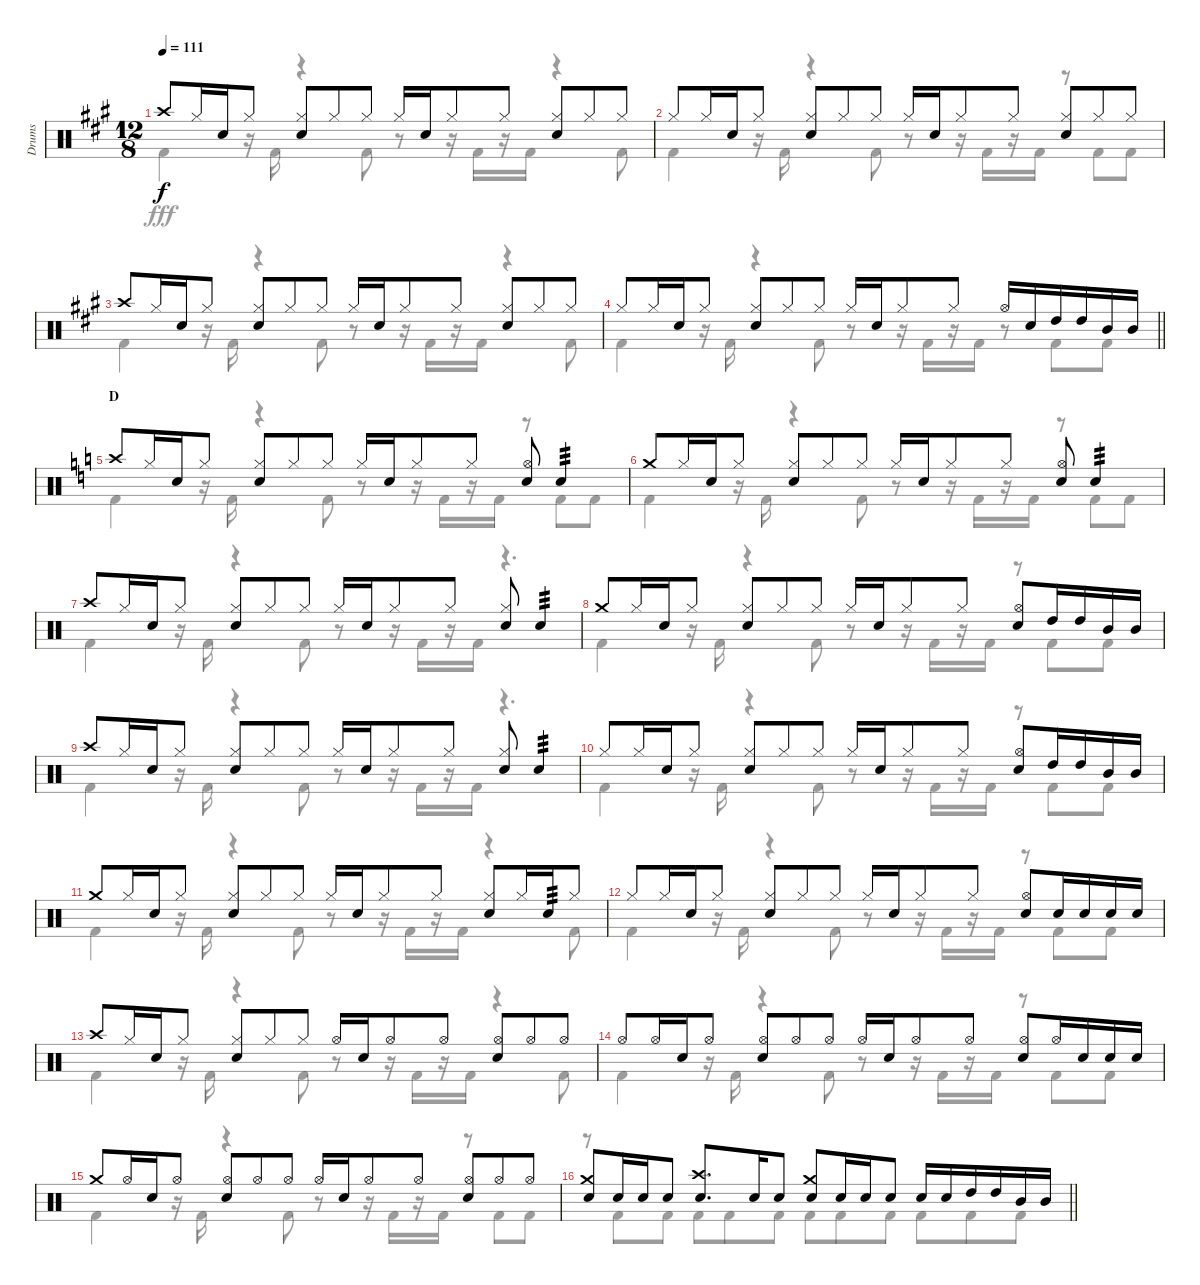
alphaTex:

\track ("Drums" "Drums") {instrument percussion}
\staff {score}
\articulation defaults
\voice
\ts (12 8)
\tempo 111
\clef neutral
\ks a "Crash high (hit)".8{dy f} "Hi-Hat (closed)".16 "Snare (hit) 2".16 "Hi-Hat (closed)".8
("Hi-Hat (closed)" "Snare (hit) 2").8 "Hi-Hat (closed)".8 "Hi-Hat (closed)".8 "Hi-Hat (closed)".16 "Snare (hit) 2".16 "Hi-Hat (closed)".8 "Hi-Hat (closed)".8 ("Hi-Hat (closed)" "Snare (hit) 2").8 "Hi-Hat (closed)".8 "Hi-Hat (closed)".8 |
"Hi-Hat (closed)".8 "Hi-Hat (closed)".16 "Snare (hit) 2".16 "Hi-Hat (closed)".8 ("Hi-Hat (closed)" "Snare (hit) 2").8 "Hi-Hat (closed)".8 "Hi-Hat (closed)".8 "Hi-Hat (closed)".16 "Snare (hit) 2".16 "Hi-Hat (closed)".8 "Hi-Hat (closed)".8 ("Hi-Hat (closed)" "Snare (hit) 2").8 "Hi-Hat (closed)".8 "Hi-Hat (closed)".8 |
"Crash high (hit)".8 "Hi-Hat (closed)".16 "Snare (hit) 2".16 "Hi-Hat (closed)".8 ("Hi-Hat (closed)" "Snare (hit) 2").8 "Hi-Hat (closed)".8 "Hi-Hat (closed)".8 "Hi-Hat (closed)".16 "Snare (hit) 2".16 "Hi-Hat (closed)".8 "Hi-Hat (closed)".8 ("Hi-Hat (closed)" "Snare (hit) 2").8 "Hi-Hat (closed)".8 "Hi-Hat (closed)".8 |
\barLineRight lightlight "Hi-Hat (closed)".8 "Hi-Hat (closed)".16 "Snare (hit) 2".16 "Hi-Hat (closed)".8
("Hi-Hat (closed)" "Snare (hit) 2").8 "Hi-Hat (closed)".8 "Hi-Hat (closed)".8 "Hi-Hat (closed)".16 "Snare (hit) 2".16 "Hi-Hat (closed)".8 "Hi-Hat (closed)".8 "Hi-Hat (open)".16 "Snare (hit) 2".16 "High Tom (hit)".16 "High Tom (hit)".16 "Mid Tom (hit)".16 "Mid Tom (hit)".16 |
\section ("" "D")
\ks c "Crash high (hit)".8 "Hi-Hat (closed)".16 "Snare (hit) 2".16 "Hi-Hat (closed)".8
("Hi-Hat (closed)" "Snare (hit) 2").8 "Hi-Hat (closed)".8 "Hi-Hat (closed)".8 "Hi-Hat (closed)".16 "Snare (hit) 2".16 "Hi-Hat (closed)".8 "Hi-Hat (closed)".8 ("Hi-Hat (open)" "Snare (hit) 2").8 "Snare (hit) 2".4{tp 3} |
"Crash medium (hit)".8 "Hi-Hat (closed)".16 "Snare (hit) 2".16 "Hi-Hat (closed)".8 ("Hi-Hat (closed)" "Snare (hit) 2").8 "Hi-Hat (closed)".8 "Hi-Hat (closed)".8 "Hi-Hat (closed)".16 "Snare (hit) 2".16 "Hi-Hat (closed)".8 "Hi-Hat (closed)".8 ("Hi-Hat (open)" "Snare (hit) 2").8 "Snare (hit) 2".4{tp 3} |
"Crash high (hit)".8 "Hi-Hat (closed)".16 "Snare (hit) 2".16 "Hi-Hat (closed)".8 ("Hi-Hat (closed)" "Snare (hit) 2").8 "Hi-Hat (closed)".8 "Hi-Hat (closed)".8 "Hi-Hat (closed)".16 "Snare (hit) 2".16 "Hi-Hat (closed)".8 "Hi-Hat (closed)".8 ("Hi-Hat (closed)" "Snare (hit) 2").8 "Snare (hit) 2".4{tp 3} |
"Crash medium (hit)".8 "Hi-Hat (closed)".16 "Snare (hit) 2".16 "Hi-Hat (closed)".8 ("Hi-Hat (closed)" "Snare (hit) 2").8 "Hi-Hat (closed)".8 "Hi-Hat (closed)".8 "Hi-Hat (closed)".16 "Snare (hit) 2".16 "Hi-Hat (closed)".8 "Hi-Hat (closed)".8 ("Hi-Hat (open)" "Snare (hit) 2").8 "High Tom (hit)".16 "High Tom (hit)".16 "Mid Tom (hit)".16 "Mid Tom (hit)".16 |
"Crash high (hit)".8 "Hi-Hat (closed)".16 "Snare (hit) 2".16 "Hi-Hat (closed)".8 ("Hi-Hat (closed)" "Snare (hit) 2").8 "Hi-Hat (closed)".8 "Hi-Hat (closed)".8 "Hi-Hat (closed)".16 "Snare (hit) 2".16 "Hi-Hat (closed)".8 "Hi-Hat (closed)".8 ("Hi-Hat (closed)" "Snare (hit) 2").8 "Snare (hit) 2".4{tp 3} |
"Hi-Hat (closed)".8 "Hi-Hat (closed)".16 "Snare (hit) 2".16 "Hi-Hat (closed)".8 ("Hi-Hat (closed)" "Snare (hit) 2").8 "Hi-Hat (closed)".8 "Hi-Hat (closed)".8 "Hi-Hat (closed)".16 "Snare (hit) 2".16 "Hi-Hat (closed)".8 "Hi-Hat (closed)".8 ("Hi-Hat (open)" "Snare (hit) 2").8 "High Tom (hit)".16 "High Tom (hit)".16 "Mid Tom (hit)".16 "Mid Tom (hit)".16 |
"Crash medium (hit)".8 "Hi-Hat (closed)".16 "Snare (hit) 2".16 "Hi-Hat (closed)".8 ("Hi-Hat (closed)" "Snare (hit) 2").8 "Hi-Hat (closed)".8 "Hi-Hat (closed)".8 "Hi-Hat (closed)".16 "Snare (hit) 2".16 "Hi-Hat (closed)".8 "Hi-Hat (closed)".8 ("Hi-Hat (closed)" "Snare (hit) 2").8 "Hi-Hat (closed)".16 "Snare (hit) 2".16{tp 3} "Hi-Hat (closed)".8 |
"Hi-Hat (closed)".8 "Hi-Hat (closed)".16 "Snare (hit) 2".16 "Hi-Hat (closed)".8 ("Hi-Hat (closed)" "Snare (hit) 2").8 "Hi-Hat (closed)".8 "Hi-Hat (closed)".8 "Hi-Hat (closed)".16 "Snare (hit) 2".16 "Hi-Hat (closed)".8 "Hi-Hat (closed)".8 ("Hi-Hat (open)" "Snare (hit) 2").8 "Snare (hit) 2".16 "Snare (hit) 2".16 "Snare (hit) 2".16 "Snare (hit) 2".16 |
"Crash high (hit)".8 "Hi-Hat (closed)".16 "Snare (hit) 2".16 "Hi-Hat (closed)".8 ("Hi-Hat (closed)" "Snare (hit) 2").8 "Hi-Hat (closed)".8 "Hi-Hat (closed)".8 "Hi-Hat (open)".16 "Snare (hit) 2".16 "Hi-Hat (open)".8 "Hi-Hat (open)".8 ("Hi-Hat (open)" "Snare (hit) 2").8 "Hi-Hat (open)".8 "Hi-Hat (open)".8 |
"Hi-Hat (open)".8 "Hi-Hat (open)".16 "Snare (hit) 2".16 "Hi-Hat (open)".8 ("Hi-Hat (open)" "Snare (hit) 2").8 "Hi-Hat (open)".8 "Hi-Hat (open)".8 "Hi-Hat (open)".16 "Snare (hit) 2".16 "Hi-Hat (open)".8 "Hi-Hat (open)".8 ("Hi-Hat (open)" "Snare (hit) 2").8 "Hi-Hat (open)".16 "Snare (hit) 2".16 "Snare (hit) 2".16 "Snare (hit) 2".16 |
"Crash medium (hit)".8 "Hi-Hat (open)".16 "Snare (hit) 2".16 "Hi-Hat (open)".8 ("Hi-Hat (open)" "Snare (hit) 2").8 "Hi-Hat (open)".8 "Hi-Hat (open)".8 "Hi-Hat (open)".16 "Snare (hit) 2".16 "Hi-Hat (open)".8 "Hi-Hat (open)".8 ("Hi-Hat (open)" "Snare (hit) 2").8 "Hi-Hat (open)".8 "Hi-Hat (open)".8 |
\barLineRight lightlight
("Crash medium (hit)" "Snare (hit) 2").8 "Snare (hit) 2".16 "Snare (hit) 2".16 "Snare (hit) 2".8 ("Crash high (hit)" "Snare (hit) 2").8{d} "Snare (hit) 2".16 "Snare (hit) 2".8 ("Crash medium (hit)" "Snare (hit) 2").8 "Snare (hit) 2".16 "Snare (hit) 2".16 "Snare (hit) 2".8 "Snare (hit) 2".16 "Snare (hit) 2".16 "High Tom (hit)".16 "High Tom (hit)".16 "Mid Tom (hit)".16 "Mid Tom (hit)".16
\voice
\clef neutral
\ottava regular
\simile none
\ks a "Kick (hit) 2".4{dy fff}
r.16 "Kick (hit) 2".16 r.4 "Kick (hit) 2".8 r.8 r.16 "Kick (hit) 2".16 r.16 "Kick (hit) 2".16 r.4 "Kick (hit) 2".8 |
"Kick (hit) 2".4 r.16 "Kick (hit) 2".16 r.4 "Kick (hit) 2".8 r.8 r.16 "Kick (hit) 2".16 r.16 "Kick (hit) 2".16 r.8 "Kick (hit) 2".8 "Kick (hit) 2".8 |
"Kick (hit) 2".4 r.16 "Kick (hit) 2".16 r.4 "Kick (hit) 2".8 r.8 r.16 "Kick (hit) 2".16 r.16 "Kick (hit) 2".16 r.4 "Kick (hit) 2".8 |
\barLineRight lightlight "Kick (hit) 2".4
r.16 "Kick (hit) 2".16 r.4 "Kick (hit) 2".8 r.8 r.16 "Kick (hit) 2".16 r.16 "Kick (hit) 2".16 r.8 "Kick (hit) 2".8 "Kick (hit) 2".8 |
\ks c "Kick (hit) 2".4
r.16 "Kick (hit) 2".16 r.4 "Kick (hit) 2".8 r.8 r.16 "Kick (hit) 2".16 r.16 "Kick (hit) 2".16 r.8 "Kick (hit) 2".8 "Kick (hit) 2".8 |
"Kick (hit) 2".4 r.16 "Kick (hit) 2".16 r.4 "Kick (hit) 2".8 r.8 r.16 "Kick (hit) 2".16 r.16 "Kick (hit) 2".16 r.8 "Kick (hit) 2".8 "Kick (hit) 2".8 |
"Kick (hit) 2".4 r.16 "Kick (hit) 2".16 r.4 "Kick (hit) 2".8 r.8 r.16 "Kick (hit) 2".16 r.16 "Kick (hit) 2".16 r.4{d} |
"Kick (hit) 2".4 r.16 "Kick (hit) 2".16 r.4 "Kick (hit) 2".8 r.8 r.16 "Kick (hit) 2".16 r.16 "Kick (hit) 2".16 r.8 "Kick (hit) 2".8 "Kick (hit) 2".8 |
"Kick (hit) 2".4 r.16 "Kick (hit) 2".16 r.4 "Kick (hit) 2".8 r.8 r.16 "Kick (hit) 2".16 r.16 "Kick (hit) 2".16 r.4{d} |
"Kick (hit) 2".4 r.16 "Kick (hit) 2".16 r.4 "Kick (hit) 2".8 r.8 r.16 "Kick (hit) 2".16 r.16 "Kick (hit) 2".16 r.8 "Kick (hit) 2".8 "Kick (hit) 2".8 |
"Kick (hit) 2".4 r.16 "Kick (hit) 2".16 r.4 "Kick (hit) 2".8 r.8 r.16 "Kick (hit) 2".16 r.16 "Kick (hit) 2".16 r.4 "Kick (hit) 2".8 |
"Kick (hit) 2".4 r.16 "Kick (hit) 2".16 r.4 "Kick (hit) 2".8 r.8 r.16 "Kick (hit) 2".16 r.16 "Kick (hit) 2".16 r.8 "Kick (hit) 2".8 "Kick (hit) 2".8 |
"Kick (hit) 2".4 r.16 "Kick (hit) 2".16 r.4 "Kick (hit) 2".8 r.8 r.16 "Kick (hit) 2".16 r.16 "Kick (hit) 2".16 r.4 "Kick (hit) 2".8 |
"Kick (hit) 2".4 r.16 "Kick (hit) 2".16 r.4 "Kick (hit) 2".8 r.8 r.16 "Kick (hit) 2".16 r.16 "Kick (hit) 2".16 r.8 "Kick (hit) 2".8 "Kick (hit) 2".8 |
"Kick (hit) 2".4 r.16 "Kick (hit) 2".16 r.4 "Kick (hit) 2".8 r.8 r.16 "Kick (hit) 2".16 r.16 "Kick (hit) 2".16 r.8 "Kick (hit) 2".8 "Kick (hit) 2".8 |
\barLineRight lightlight
r.8 "Kick (hit) 2".8 "Kick (hit) 2".8 "Kick (hit) 2".8 "Kick (hit) 2".8 "Kick (hit) 2".8 "Kick (hit) 2".8 "Kick (hit) 2".8 "Kick (hit) 2".8 "Kick (hit) 2".8 "Kick (hit) 2".8 "Kick (hit) 2".8
